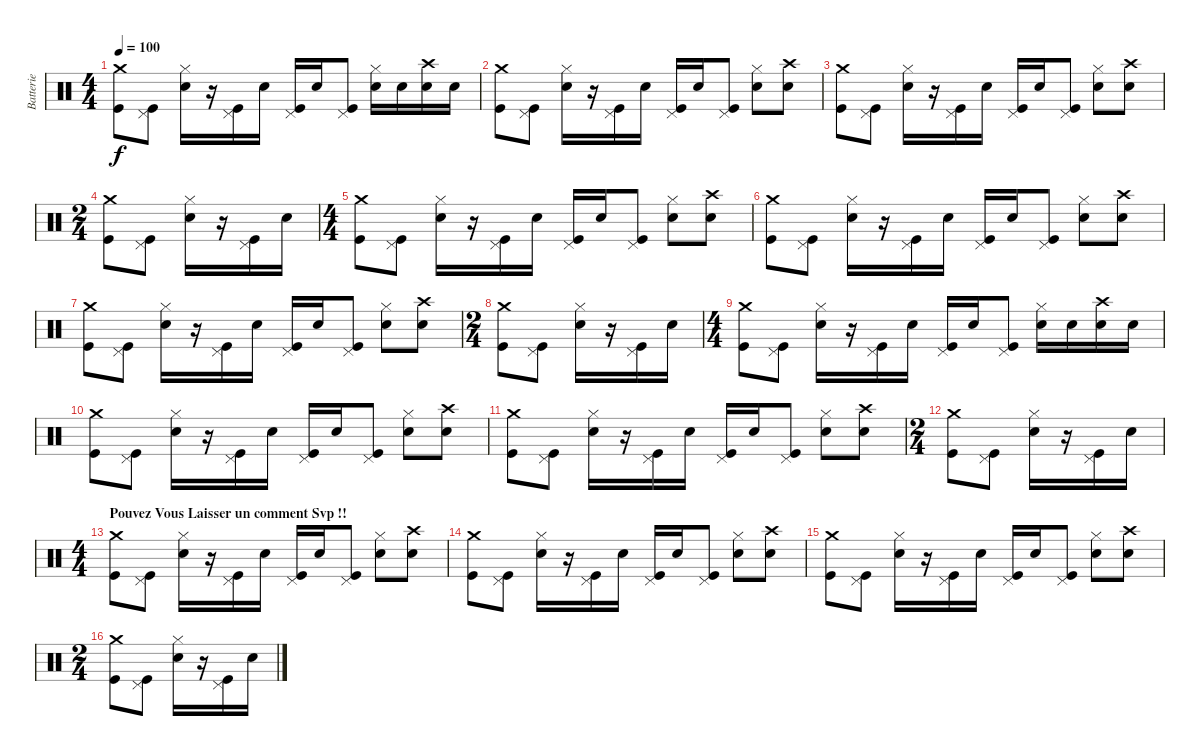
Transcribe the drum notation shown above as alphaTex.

\track ("Batterie" "Batterie") {instrument percussion}
\staff {score}
\articulation defaults
\ts (4 4)
\tempo 100
\clef neutral
\ks c
("Crash medium (hit)" "Kick (hit)").8{dy f} ("Pedal Hi-Hat (hit)" "Kick (hit)").8 ("Hi-Hat (closed)" "Electric Snare (hit)").16 r.16 ("Pedal Hi-Hat (hit)" "Kick (hit)").16 "Electric Snare (hit)".16 ("Pedal Hi-Hat (hit)" "Kick (hit)").16 "Electric Snare (hit)".16 ("Pedal Hi-Hat (hit)" "Kick (hit)").8 ("Hi-Hat (closed)" "Electric Snare (hit)").16 "Electric Snare (hit)".16 ("Crash high (hit)" "Electric Snare (hit)").16 "Electric Snare (hit)".16 |
("Crash medium (hit)" "Kick (hit)").8 ("Pedal Hi-Hat (hit)" "Kick (hit)").8 ("Hi-Hat (closed)" "Electric Snare (hit)").16 r.16 ("Pedal Hi-Hat (hit)" "Kick (hit)").16 "Electric Snare (hit)".16 ("Pedal Hi-Hat (hit)" "Kick (hit)").16 "Electric Snare (hit)".16 ("Pedal Hi-Hat (hit)" "Kick (hit)").8 ("Hi-Hat (closed)" "Electric Snare (hit)").8 ("Crash high (hit)" "Electric Snare (hit)").8 |
("Crash medium (hit)" "Kick (hit)").8 ("Pedal Hi-Hat (hit)" "Kick (hit)").8 ("Hi-Hat (closed)" "Electric Snare (hit)").16 r.16 ("Pedal Hi-Hat (hit)" "Kick (hit)").16 "Electric Snare (hit)".16 ("Pedal Hi-Hat (hit)" "Kick (hit)").16 "Electric Snare (hit)".16 ("Pedal Hi-Hat (hit)" "Kick (hit)").8 ("Hi-Hat (closed)" "Electric Snare (hit)").8 ("Crash high (hit)" "Electric Snare (hit)").8 |
\ts (2 4)
("Crash medium (hit)" "Kick (hit)").8 ("Pedal Hi-Hat (hit)" "Kick (hit)").8 ("Hi-Hat (closed)" "Electric Snare (hit)").16 r.16 ("Pedal Hi-Hat (hit)" "Kick (hit)").16 "Electric Snare (hit)".16 |
\ts (4 4)
("Crash medium (hit)" "Kick (hit)").8 ("Pedal Hi-Hat (hit)" "Kick (hit)").8 ("Hi-Hat (closed)" "Electric Snare (hit)").16 r.16 ("Pedal Hi-Hat (hit)" "Kick (hit)").16 "Electric Snare (hit)".16 ("Pedal Hi-Hat (hit)" "Kick (hit)").16 "Electric Snare (hit)".16 ("Pedal Hi-Hat (hit)" "Kick (hit)").8 ("Hi-Hat (closed)" "Electric Snare (hit)").8 ("Crash high (hit)" "Electric Snare (hit)").8 |
("Crash medium (hit)" "Kick (hit)").8 ("Pedal Hi-Hat (hit)" "Kick (hit)").8 ("Hi-Hat (closed)" "Electric Snare (hit)").16 r.16 ("Pedal Hi-Hat (hit)" "Kick (hit)").16 "Electric Snare (hit)".16 ("Pedal Hi-Hat (hit)" "Kick (hit)").16 "Electric Snare (hit)".16 ("Pedal Hi-Hat (hit)" "Kick (hit)").8 ("Hi-Hat (closed)" "Electric Snare (hit)").8 ("Crash high (hit)" "Electric Snare (hit)").8 |
("Crash medium (hit)" "Kick (hit)").8 ("Pedal Hi-Hat (hit)" "Kick (hit)").8 ("Hi-Hat (closed)" "Electric Snare (hit)").16 r.16 ("Pedal Hi-Hat (hit)" "Kick (hit)").16 "Electric Snare (hit)".16 ("Pedal Hi-Hat (hit)" "Kick (hit)").16 "Electric Snare (hit)".16 ("Pedal Hi-Hat (hit)" "Kick (hit)").8 ("Hi-Hat (closed)" "Electric Snare (hit)").8 ("Crash high (hit)" "Electric Snare (hit)").8 |
\ts (2 4)
("Crash medium (hit)" "Kick (hit)").8 ("Pedal Hi-Hat (hit)" "Kick (hit)").8 ("Hi-Hat (closed)" "Electric Snare (hit)").16 r.16 ("Pedal Hi-Hat (hit)" "Kick (hit)").16 "Electric Snare (hit)".16 |
\ts (4 4)
("Crash medium (hit)" "Kick (hit)").8 ("Pedal Hi-Hat (hit)" "Kick (hit)").8 ("Hi-Hat (closed)" "Electric Snare (hit)").16 r.16 ("Pedal Hi-Hat (hit)" "Kick (hit)").16 "Electric Snare (hit)".16 ("Pedal Hi-Hat (hit)" "Kick (hit)").16 "Electric Snare (hit)".16 ("Pedal Hi-Hat (hit)" "Kick (hit)").8 ("Hi-Hat (closed)" "Electric Snare (hit)").16 "Electric Snare (hit)".16 ("Crash high (hit)" "Electric Snare (hit)").16 "Electric Snare (hit)".16 |
("Crash medium (hit)" "Kick (hit)").8 ("Pedal Hi-Hat (hit)" "Kick (hit)").8 ("Hi-Hat (closed)" "Electric Snare (hit)").16 r.16 ("Pedal Hi-Hat (hit)" "Kick (hit)").16 "Electric Snare (hit)".16 ("Pedal Hi-Hat (hit)" "Kick (hit)").16 "Electric Snare (hit)".16 ("Pedal Hi-Hat (hit)" "Kick (hit)").8 ("Hi-Hat (closed)" "Electric Snare (hit)").8 ("Crash high (hit)" "Electric Snare (hit)").8 |
("Crash medium (hit)" "Kick (hit)").8 ("Pedal Hi-Hat (hit)" "Kick (hit)").8 ("Hi-Hat (closed)" "Electric Snare (hit)").16 r.16 ("Pedal Hi-Hat (hit)" "Kick (hit)").16 "Electric Snare (hit)".16 ("Pedal Hi-Hat (hit)" "Kick (hit)").16 "Electric Snare (hit)".16 ("Pedal Hi-Hat (hit)" "Kick (hit)").8 ("Hi-Hat (closed)" "Electric Snare (hit)").8 ("Crash high (hit)" "Electric Snare (hit)").8 |
\ts (2 4)
("Crash medium (hit)" "Kick (hit)").8 ("Pedal Hi-Hat (hit)" "Kick (hit)").8 ("Hi-Hat (closed)" "Electric Snare (hit)").16 r.16 ("Pedal Hi-Hat (hit)" "Kick (hit)").16 "Electric Snare (hit)".16 |
\ts (4 4)
\section ("" "Pouvez Vous Laisser un comment Svp !!")
("Crash medium (hit)" "Kick (hit)").8 ("Pedal Hi-Hat (hit)" "Kick (hit)").8 ("Hi-Hat (closed)" "Electric Snare (hit)").16 r.16 ("Pedal Hi-Hat (hit)" "Kick (hit)").16 "Electric Snare (hit)".16 ("Pedal Hi-Hat (hit)" "Kick (hit)").16 "Electric Snare (hit)".16 ("Pedal Hi-Hat (hit)" "Kick (hit)").8 ("Hi-Hat (closed)" "Electric Snare (hit)").8 ("Crash high (hit)" "Electric Snare (hit)").8 |
("Crash medium (hit)" "Kick (hit)").8 ("Pedal Hi-Hat (hit)" "Kick (hit)").8 ("Hi-Hat (closed)" "Electric Snare (hit)").16 r.16 ("Pedal Hi-Hat (hit)" "Kick (hit)").16 "Electric Snare (hit)".16 ("Pedal Hi-Hat (hit)" "Kick (hit)").16 "Electric Snare (hit)".16 ("Pedal Hi-Hat (hit)" "Kick (hit)").8 ("Hi-Hat (closed)" "Electric Snare (hit)").8 ("Crash high (hit)" "Electric Snare (hit)").8 |
("Crash medium (hit)" "Kick (hit)").8 ("Pedal Hi-Hat (hit)" "Kick (hit)").8 ("Hi-Hat (closed)" "Electric Snare (hit)").16 r.16 ("Pedal Hi-Hat (hit)" "Kick (hit)").16 "Electric Snare (hit)".16 ("Pedal Hi-Hat (hit)" "Kick (hit)").16 "Electric Snare (hit)".16 ("Pedal Hi-Hat (hit)" "Kick (hit)").8 ("Hi-Hat (closed)" "Electric Snare (hit)").8 ("Crash high (hit)" "Electric Snare (hit)").8 |
\ts (2 4)
("Crash medium (hit)" "Kick (hit)").8 ("Pedal Hi-Hat (hit)" "Kick (hit)").8 ("Hi-Hat (closed)" "Electric Snare (hit)").16 r.16 ("Pedal Hi-Hat (hit)" "Kick (hit)").16 "Electric Snare (hit)".16
